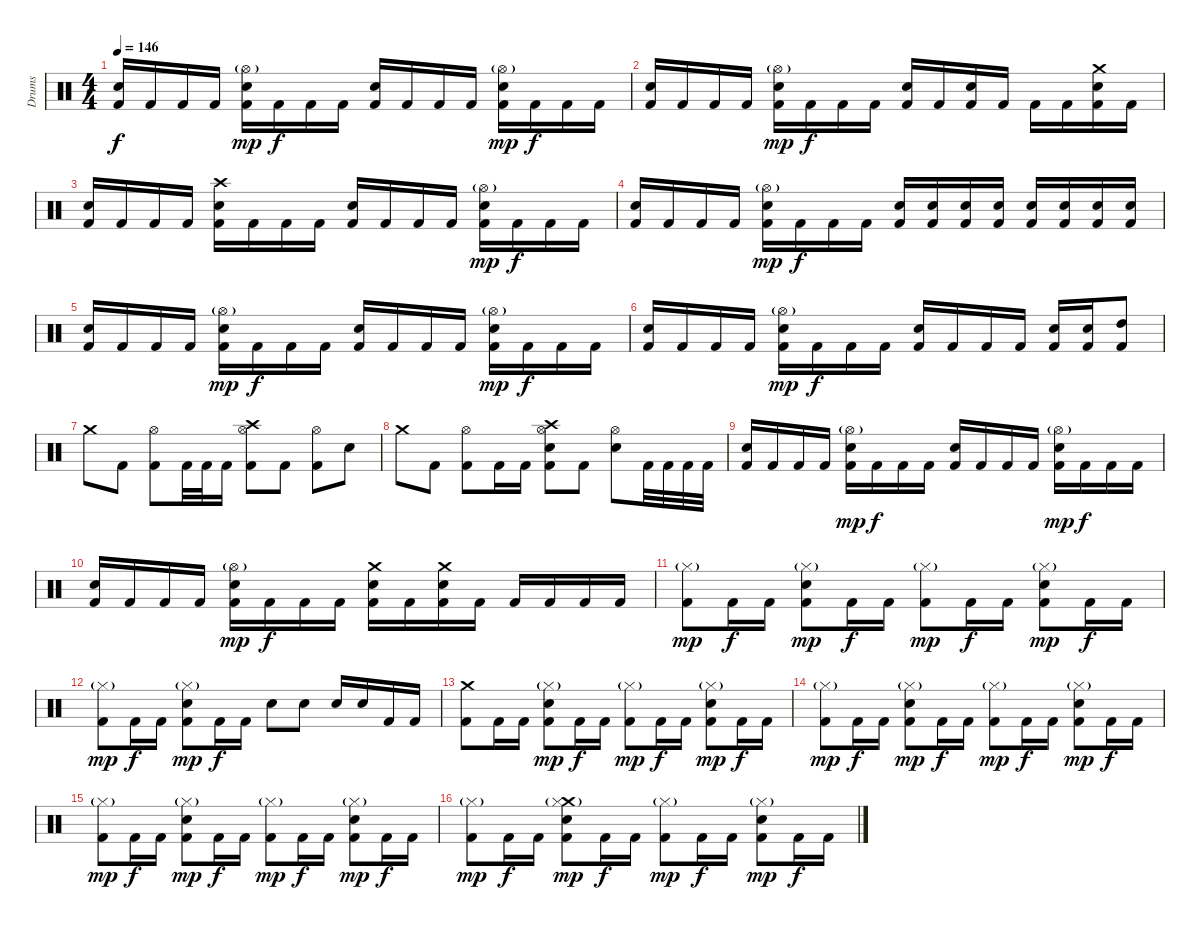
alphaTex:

\track ("Drums" "Drums") {instrument percussion}
\staff {score}
\articulation defaults
\ts (4 4)
\tempo 146
\clef neutral
\ks c
("Snare (hit) 2" "Kick (hit) 2").16{dy f} "Kick (hit) 2".16 "Kick (hit) 2".16 "Kick (hit) 2".16 ("Snare (hit) 2" "Hi-Hat (open)"{g} "Kick (hit) 2").16{dy mp} "Kick (hit) 2".16{dy f} "Kick (hit) 2".16 "Kick (hit) 2".16 ("Snare (hit) 2" "Kick (hit) 2").16 "Kick (hit) 2".16 "Kick (hit) 2".16 "Kick (hit) 2".16 ("Snare (hit) 2" "Hi-Hat (open)"{g} "Kick (hit) 2").16{dy mp} "Kick (hit) 2".16{dy f} "Kick (hit) 2".16 "Kick (hit) 2".16 |
("Snare (hit) 2" "Kick (hit) 2").16 "Kick (hit) 2".16 "Kick (hit) 2".16 "Kick (hit) 2".16 ("Snare (hit) 2" "Hi-Hat (open)"{g} "Kick (hit) 2").16{dy mp} "Kick (hit) 2".16{dy f} "Kick (hit) 2".16 "Kick (hit) 2".16 ("Snare (hit) 2" "Kick (hit) 2").16 "Kick (hit) 2".16 ("Snare (hit) 2" "Kick (hit) 2").16 "Kick (hit) 2".16 "Kick (hit) 2".16 "Kick (hit) 2".16 ("Crash medium (hit)" "Snare (hit) 2" "Kick (hit) 2").16 "Kick (hit) 2".16 |
("Snare (hit) 2" "Kick (hit) 2").16 "Kick (hit) 2".16 "Kick (hit) 2".16 "Kick (hit) 2".16 ("Crash high (hit)" "Snare (hit) 2" "Kick (hit) 2").16 "Kick (hit) 2".16 "Kick (hit) 2".16 "Kick (hit) 2".16 ("Snare (hit) 2" "Kick (hit) 2").16 "Kick (hit) 2".16 "Kick (hit) 2".16 "Kick (hit) 2".16 ("Snare (hit) 2" "Hi-Hat (open)"{g} "Kick (hit) 2").16{dy mp} "Kick (hit) 2".16{dy f} "Kick (hit) 2".16 "Kick (hit) 2".16 |
("Snare (hit) 2" "Kick (hit) 2").16 "Kick (hit) 2".16 "Kick (hit) 2".16 "Kick (hit) 2".16 ("Snare (hit) 2" "Hi-Hat (open)"{g} "Kick (hit) 2").16{dy mp} "Kick (hit) 2".16{dy f} "Kick (hit) 2".16 "Kick (hit) 2".16 ("Snare (hit) 2" "Kick (hit) 2").16 ("Snare (hit) 2" "Kick (hit) 2").16 ("Snare (hit) 2" "Kick (hit) 2").16 ("Snare (hit) 2" "Kick (hit) 2").16 ("Snare (hit) 2" "Kick (hit) 2").16 ("Snare (hit) 2" "Kick (hit) 2").16 ("Snare (hit) 2" "Kick (hit) 2").16 ("Snare (hit) 2" "Kick (hit) 2").16 |
("Snare (hit) 2" "Kick (hit) 2").16 "Kick (hit) 2".16 "Kick (hit) 2".16 "Kick (hit) 2".16 ("Snare (hit) 2" "Hi-Hat (open)"{g} "Kick (hit) 2").16{dy mp} "Kick (hit) 2".16{dy f} "Kick (hit) 2".16 "Kick (hit) 2".16 ("Snare (hit) 2" "Kick (hit) 2").16 "Kick (hit) 2".16 "Kick (hit) 2".16 "Kick (hit) 2".16 ("Snare (hit) 2" "Hi-Hat (open)"{g} "Kick (hit) 2").16{dy mp} "Kick (hit) 2".16{dy f} "Kick (hit) 2".16 "Kick (hit) 2".16 |
("Snare (hit) 2" "Kick (hit) 2").16 "Kick (hit) 2".16 "Kick (hit) 2".16 "Kick (hit) 2".16 ("Snare (hit) 2" "Hi-Hat (open)"{g} "Kick (hit) 2").16{dy mp} "Kick (hit) 2".16{dy f} "Kick (hit) 2".16 "Kick (hit) 2".16 ("Snare (hit) 2" "Kick (hit) 2").16 "Kick (hit) 2".16 "Kick (hit) 2".16 "Kick (hit) 2".16 ("Snare (hit) 2" "Kick (hit) 2").16 ("Snare (hit) 2" "Kick (hit) 2").16 ("High Tom (hit)" "Kick (hit) 2").8 |
"Crash medium (hit)".8 "Kick (hit) 2".8 ("Hi-Hat (open)" "Kick (hit) 2").8 "Kick (hit) 2".32 "Kick (hit) 2".32 "Kick (hit) 2".16 ("Crash high (hit)" "Hi-Hat (open)" "Kick (hit) 2").8 "Kick (hit) 2".8 ("Hi-Hat (open)" "Kick (hit) 2").8 "Snare (hit) 2".8 |
"Crash medium (hit)".8 "Kick (hit) 2".8 ("Hi-Hat (open)" "Kick (hit) 2").8 "Kick (hit) 2".16 "Kick (hit) 2".16 ("Crash high (hit)" "Hi-Hat (open)" "Snare (hit) 2" "Kick (hit) 2").8 "Kick (hit) 2".8 ("Hi-Hat (open)" "Snare (hit) 2").8 "Kick (hit) 2".32 "Kick (hit) 2".32 "Kick (hit) 2".32 "Kick (hit) 2".32 |
("Snare (hit) 2" "Kick (hit) 2").16 "Kick (hit) 2".16 "Kick (hit) 2".16 "Kick (hit) 2".16 ("Snare (hit) 2" "Hi-Hat (open)"{g} "Kick (hit) 2").16{dy mp} "Kick (hit) 2".16{dy f} "Kick (hit) 2".16 "Kick (hit) 2".16 ("Snare (hit) 2" "Kick (hit) 2").16 "Kick (hit) 2".16 "Kick (hit) 2".16 "Kick (hit) 2".16 ("Snare (hit) 2" "Hi-Hat (open)"{g} "Kick (hit) 2").16{dy mp} "Kick (hit) 2".16{dy f} "Kick (hit) 2".16 "Kick (hit) 2".16 |
("Snare (hit) 2" "Kick (hit) 2").16 "Kick (hit) 2".16 "Kick (hit) 2".16 "Kick (hit) 2".16 ("Snare (hit) 2" "Hi-Hat (open)"{g} "Kick (hit) 2").16{dy mp} "Kick (hit) 2".16{dy f} "Kick (hit) 2".16 "Kick (hit) 2".16 ("Snare (hit) 2" "Crash medium (hit)" "Kick (hit) 2").16 "Kick (hit) 2".16 ("Snare (hit) 2" "Crash medium (hit)" "Kick (hit) 2").16 "Kick (hit) 2".16 "Kick (hit) 2".16 "Kick (hit) 2".16 "Kick (hit) 2".16 "Kick (hit) 2".16 |
("Hi-Hat (closed)"{g} "Kick (hit) 2").8{dy mp} "Kick (hit) 2".16{dy f} "Kick (hit) 2".16 ("Snare (hit) 2" "Hi-Hat (closed)"{g} "Kick (hit) 2").8{dy mp} "Kick (hit) 2".16{dy f} "Kick (hit) 2".16 ("Hi-Hat (closed)"{g} "Kick (hit) 2").8{dy mp} "Kick (hit) 2".16{dy f} "Kick (hit) 2".16 ("Snare (hit) 2" "Hi-Hat (closed)"{g} "Kick (hit) 2").8{dy mp} "Kick (hit) 2".16{dy f} "Kick (hit) 2".16 |
("Hi-Hat (closed)"{g} "Kick (hit) 2").8{dy mp} "Kick (hit) 2".16{dy f} "Kick (hit) 2".16 ("Snare (hit) 2" "Hi-Hat (closed)"{g} "Kick (hit) 2").8{dy mp} "Kick (hit) 2".16{dy f} "Kick (hit) 2".16 "Snare (hit) 2".8 "Snare (hit) 2".8 "Snare (hit) 2".16 "Snare (hit) 2".16 "Kick (hit) 2".16 "Kick (hit) 2".16 |
("Crash medium (hit)" "Kick (hit) 2").8 "Kick (hit) 2".16 "Kick (hit) 2".16 ("Snare (hit) 2" "Hi-Hat (closed)"{g} "Kick (hit) 2").8{dy mp} "Kick (hit) 2".16{dy f} "Kick (hit) 2".16 ("Hi-Hat (closed)"{g} "Kick (hit) 2").8{dy mp} "Kick (hit) 2".16{dy f} "Kick (hit) 2".16 ("Snare (hit) 2" "Hi-Hat (closed)"{g} "Kick (hit) 2").8{dy mp} "Kick (hit) 2".16{dy f} "Kick (hit) 2".16 |
("Hi-Hat (closed)"{g} "Kick (hit) 2").8{dy mp} "Kick (hit) 2".16{dy f} "Kick (hit) 2".16 ("Snare (hit) 2" "Hi-Hat (closed)"{g} "Kick (hit) 2").8{dy mp} "Kick (hit) 2".16{dy f} "Kick (hit) 2".16 ("Hi-Hat (closed)"{g} "Kick (hit) 2").8{dy mp} "Kick (hit) 2".16{dy f} "Kick (hit) 2".16 ("Snare (hit) 2" "Hi-Hat (closed)"{g} "Kick (hit) 2").8{dy mp} "Kick (hit) 2".16{dy f} "Kick (hit) 2".16 |
("Hi-Hat (closed)"{g} "Kick (hit) 2").8{dy mp} "Kick (hit) 2".16{dy f} "Kick (hit) 2".16 ("Snare (hit) 2" "Hi-Hat (closed)"{g} "Kick (hit) 2").8{dy mp} "Kick (hit) 2".16{dy f} "Kick (hit) 2".16 ("Hi-Hat (closed)"{g} "Kick (hit) 2").8{dy mp} "Kick (hit) 2".16{dy f} "Kick (hit) 2".16 ("Snare (hit) 2" "Hi-Hat (closed)"{g} "Kick (hit) 2").8{dy mp} "Kick (hit) 2".16{dy f} "Kick (hit) 2".16 |
("Hi-Hat (closed)"{g} "Kick (hit) 2").8{dy mp} "Kick (hit) 2".16{dy f} "Kick (hit) 2".16 ("Crash medium (hit)" "Snare (hit) 2" "Hi-Hat (closed)"{g} "Kick (hit) 2").8{dy mp} "Kick (hit) 2".16{dy f} "Kick (hit) 2".16 ("Hi-Hat (closed)"{g} "Kick (hit) 2").8{dy mp} "Kick (hit) 2".16{dy f} "Kick (hit) 2".16 ("Snare (hit) 2" "Hi-Hat (closed)"{g} "Kick (hit) 2").8{dy mp} "Kick (hit) 2".16{dy f} "Kick (hit) 2".16
